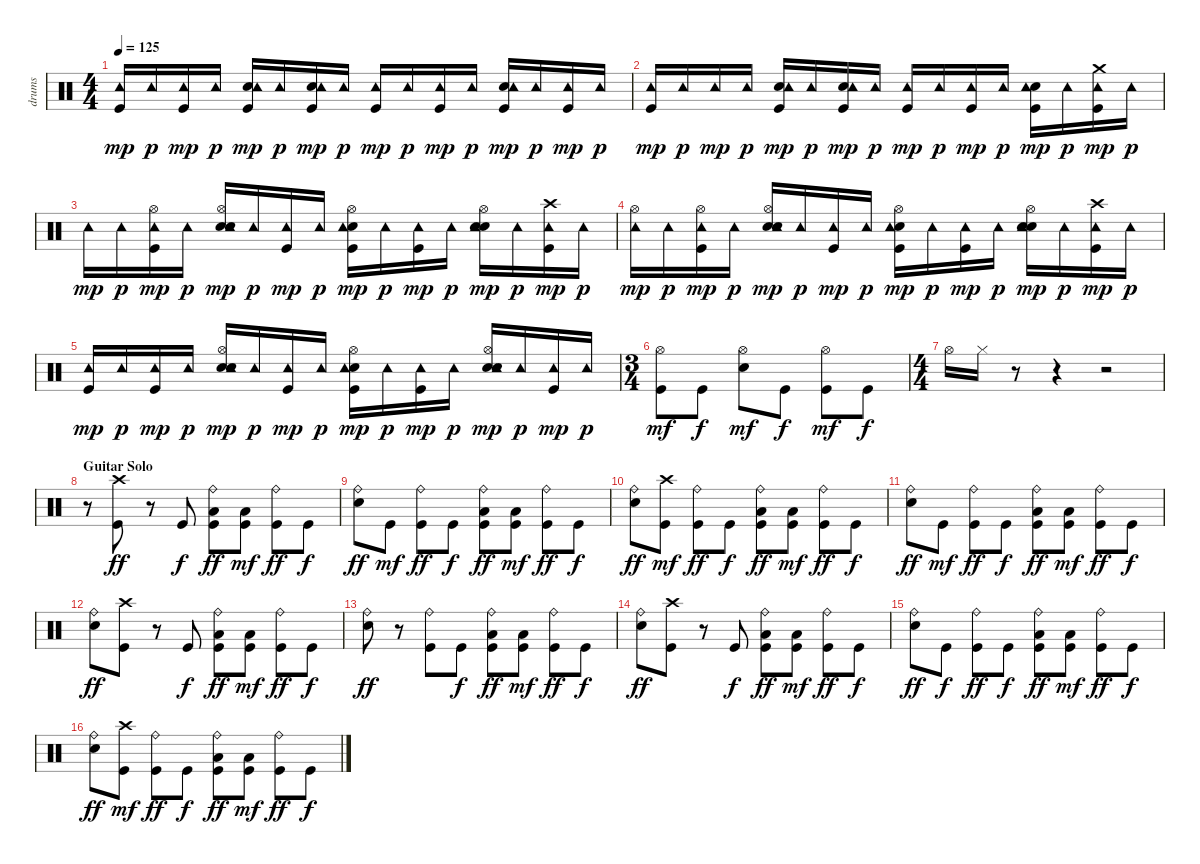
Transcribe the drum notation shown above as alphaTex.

\track ("drums" "drums") {instrument percussion}
\staff {score}
\articulation defaults
\ts (4 4)
\tempo 125
\clef neutral
\ks c
("Kick (hit)" "Tambourine (hit)").16{dy mp} "Tambourine (hit)".16{dy p} ("Kick (hit)" "Tambourine (hit)").16{dy mp} "Tambourine (hit)".16{dy p} ("Hand Clap (hit)" "Kick (hit)" "Tambourine (hit)").16{dy mp} "Tambourine (hit)".16{dy p} ("Hand Clap (hit)" "Kick (hit)" "Tambourine (hit)").16{dy mp} "Tambourine (hit)".16{dy p} ("Kick (hit)" "Tambourine (hit)").16{dy mp} "Tambourine (hit)".16{dy p} ("Kick (hit)" "Tambourine (hit)").16{dy mp} "Tambourine (hit)".16{dy p} ("Hand Clap (hit)" "Kick (hit)" "Tambourine (hit)").16{dy mp} "Tambourine (hit)".16{dy p} ("Kick (hit)" "Tambourine (hit)").16{dy mp} "Tambourine (hit)".16{dy p} |
("Kick (hit)" "Tambourine (hit)").16{dy mp} "Tambourine (hit)".16{dy p} "Tambourine (hit)".16{dy mp} "Tambourine (hit)".16{dy p} ("Hand Clap (hit)" "Kick (hit)" "Tambourine (hit)").16{dy mp} "Tambourine (hit)".16{dy p} ("Hand Clap (hit)" "Kick (hit)" "Tambourine (hit)").16{dy mp} "Tambourine (hit)".16{dy p} ("Kick (hit)" "Tambourine (hit)").16{dy mp} "Tambourine (hit)".16{dy p} ("Kick (hit)" "Tambourine (hit)").16{dy mp} "Tambourine (hit)".16{dy p} ("Hand Clap (hit)" "Kick (hit)" "Tambourine (hit)").16{dy mp} "Tambourine (hit)".16{dy p} ("Kick (hit)" "Crash medium (hit)" "Tambourine (hit)").16{dy mp} "Tambourine (hit)".16{dy p} |
"Tambourine (hit)".16{dy mp} "Tambourine (hit)".16{dy p} ("Kick (hit)" "Hi-Hat (open)" "Tambourine (hit)").16{dy mp} "Tambourine (hit)".16{dy p} ("Electric Snare (hit)" "Hand Clap (hit)" "Hi-Hat (open)" "Tambourine (hit)").16{dy mp} "Tambourine (hit)".16{dy p} ("Kick (hit)" "Tambourine (hit)").16{dy mp} "Tambourine (hit)".16{dy p} ("Hand Clap (hit)" "Kick (hit)" "Hi-Hat (open)" "Tambourine (hit)").16{dy mp} "Tambourine (hit)".16{dy p} ("Kick (hit)" "Tambourine (hit)").16{dy mp} "Tambourine (hit)".16{dy p} ("Electric Snare (hit)" "Hand Clap (hit)" "Hi-Hat (open)" "Tambourine (hit)").16{dy mp} "Tambourine (hit)".16{dy p} ("Kick (hit)" "Crash high (hit)" "Tambourine (hit)").16{dy mp} "Tambourine (hit)".16{dy p} |
("Hi-Hat (open)" "Tambourine (hit)").16{dy mp} "Tambourine (hit)".16{dy p} ("Kick (hit)" "Hi-Hat (open)" "Tambourine (hit)").16{dy mp} "Tambourine (hit)".16{dy p} ("Electric Snare (hit)" "Hand Clap (hit)" "Hi-Hat (open)" "Tambourine (hit)").16{dy mp} "Tambourine (hit)".16{dy p} ("Kick (hit)" "Tambourine (hit)").16{dy mp} "Tambourine (hit)".16{dy p} ("Hand Clap (hit)" "Kick (hit)" "Hi-Hat (open)" "Tambourine (hit)").16{dy mp} "Tambourine (hit)".16{dy p} ("Kick (hit)" "Tambourine (hit)").16{dy mp} "Tambourine (hit)".16{dy p} ("Electric Snare (hit)" "Hand Clap (hit)" "Hi-Hat (open)" "Tambourine (hit)").16{dy mp} "Tambourine (hit)".16{dy p} ("Kick (hit)" "Crash high (hit)" "Tambourine (hit)").16{dy mp} "Tambourine (hit)".16{dy p} |
("Kick (hit)" "Tambourine (hit)").16{dy mp} "Tambourine (hit)".16{dy p} ("Kick (hit)" "Tambourine (hit)").16{dy mp} "Tambourine (hit)".16{dy p} ("Electric Snare (hit)" "Hand Clap (hit)" "Hi-Hat (open)" "Tambourine (hit)").16{dy mp} "Tambourine (hit)".16{dy p} ("Kick (hit)" "Tambourine (hit)").16{dy mp} "Tambourine (hit)".16{dy p} ("Hand Clap (hit)" "Kick (hit)" "Hi-Hat (open)" "Tambourine (hit)").16{dy mp} "Tambourine (hit)".16{dy p} ("Kick (hit)" "Tambourine (hit)").16{dy mp} "Tambourine (hit)".16{dy p} ("Electric Snare (hit)" "Hand Clap (hit)" "Hi-Hat (open)" "Tambourine (hit)").16{dy mp} "Tambourine (hit)".16{dy p} ("Kick (hit)" "Tambourine (hit)").16{dy mp} "Tambourine (hit)".16{dy p} |
\ts (3 4)
("Kick (hit)" "Hi-Hat (open)").8{dy mf} "Kick (hit)".8{dy f} ("Electric Snare (hit)" "Hi-Hat (open)").8{dy mf} "Kick (hit)".8{dy f} ("Kick (hit)" "Hi-Hat (open)").8{dy mf} "Kick (hit)".8{dy f} |
\ts (4 4)
"Hi-Hat (open)".16 "Hi-Hat (closed)".16 r.8 r.4 r.2 |
\section ("" "Guitar Solo")
r.8 ("Kick (hit)" "Crash high (hit)").8{dy ff} r.8 "Kick (hit)".8{dy f} ("Low Tom (hit)" "Kick (hit)" "Ride (bell)").8{dy ff} ("Low Tom (hit)" "Kick (hit)").8{dy mf} ("Kick (hit)" "Ride (bell)").8{dy ff} "Kick (hit)".8{dy f} |
("Electric Snare (hit)" "Ride (bell)").8{dy ff} "Kick (hit)".8{dy mf} ("Kick (hit)" "Ride (bell)").8{dy ff} "Kick (hit)".8{dy f} ("Low Tom (hit)" "Kick (hit)" "Ride (bell)").8{dy ff} ("Low Tom (hit)" "Kick (hit)").8{dy mf} ("Kick (hit)" "Ride (bell)").8{dy ff} "Kick (hit)".8{dy f} |
("Electric Snare (hit)" "Ride (bell)").8{dy ff} ("Kick (hit)" "Crash high (hit)").8{dy mf} ("Kick (hit)" "Ride (bell)").8{dy ff} "Kick (hit)".8{dy f} ("Low Tom (hit)" "Kick (hit)" "Ride (bell)").8{dy ff} ("Low Tom (hit)" "Kick (hit)").8{dy mf} ("Kick (hit)" "Ride (bell)").8{dy ff} "Kick (hit)".8{dy f} |
("Electric Snare (hit)" "Ride (bell)").8{dy ff} "Kick (hit)".8{dy mf} ("Kick (hit)" "Ride (bell)").8{dy ff} "Kick (hit)".8{dy f} ("Low Tom (hit)" "Kick (hit)" "Ride (bell)").8{dy ff} ("Low Tom (hit)" "Kick (hit)").8{dy mf} ("Kick (hit)" "Ride (bell)").8{dy ff} "Kick (hit)".8{dy f} |
("Electric Snare (hit)" "Ride (bell)").8{dy ff} ("Kick (hit)" "Crash high (hit)").8 r.8 "Kick (hit)".8{dy f} ("Low Tom (hit)" "Kick (hit)" "Ride (bell)").8{dy ff} ("Low Tom (hit)" "Kick (hit)").8{dy mf} ("Kick (hit)" "Ride (bell)").8{dy ff} "Kick (hit)".8{dy f} |
("Electric Snare (hit)" "Ride (bell)").8{dy ff} r.8 ("Kick (hit)" "Ride (bell)").8 "Kick (hit)".8{dy f} ("Low Tom (hit)" "Kick (hit)" "Ride (bell)").8{dy ff} ("Low Tom (hit)" "Kick (hit)").8{dy mf} ("Kick (hit)" "Ride (bell)").8{dy ff} "Kick (hit)".8{dy f} |
("Electric Snare (hit)" "Ride (bell)").8{dy ff} ("Kick (hit)" "Crash high (hit)").8 r.8 "Kick (hit)".8{dy f} ("Low Tom (hit)" "Kick (hit)" "Ride (bell)").8{dy ff} ("Low Tom (hit)" "Kick (hit)").8{dy mf} ("Kick (hit)" "Ride (bell)").8{dy ff} "Kick (hit)".8{dy f} |
("Electric Snare (hit)" "Ride (bell)").8{dy ff} "Kick (hit)".8{dy f} ("Kick (hit)" "Ride (bell)").8{dy ff} "Kick (hit)".8{dy f} ("Low Tom (hit)" "Kick (hit)" "Ride (bell)").8{dy ff} ("Low Tom (hit)" "Kick (hit)").8{dy mf} ("Kick (hit)" "Ride (bell)").8{dy ff} "Kick (hit)".8{dy f} |
("Electric Snare (hit)" "Ride (bell)").8{dy ff} ("Kick (hit)" "Crash high (hit)").8{dy mf} ("Kick (hit)" "Ride (bell)").8{dy ff} "Kick (hit)".8{dy f} ("Low Tom (hit)" "Kick (hit)" "Ride (bell)").8{dy ff} ("Low Tom (hit)" "Kick (hit)").8{dy mf} ("Kick (hit)" "Ride (bell)").8{dy ff} "Kick (hit)".8{dy f}
